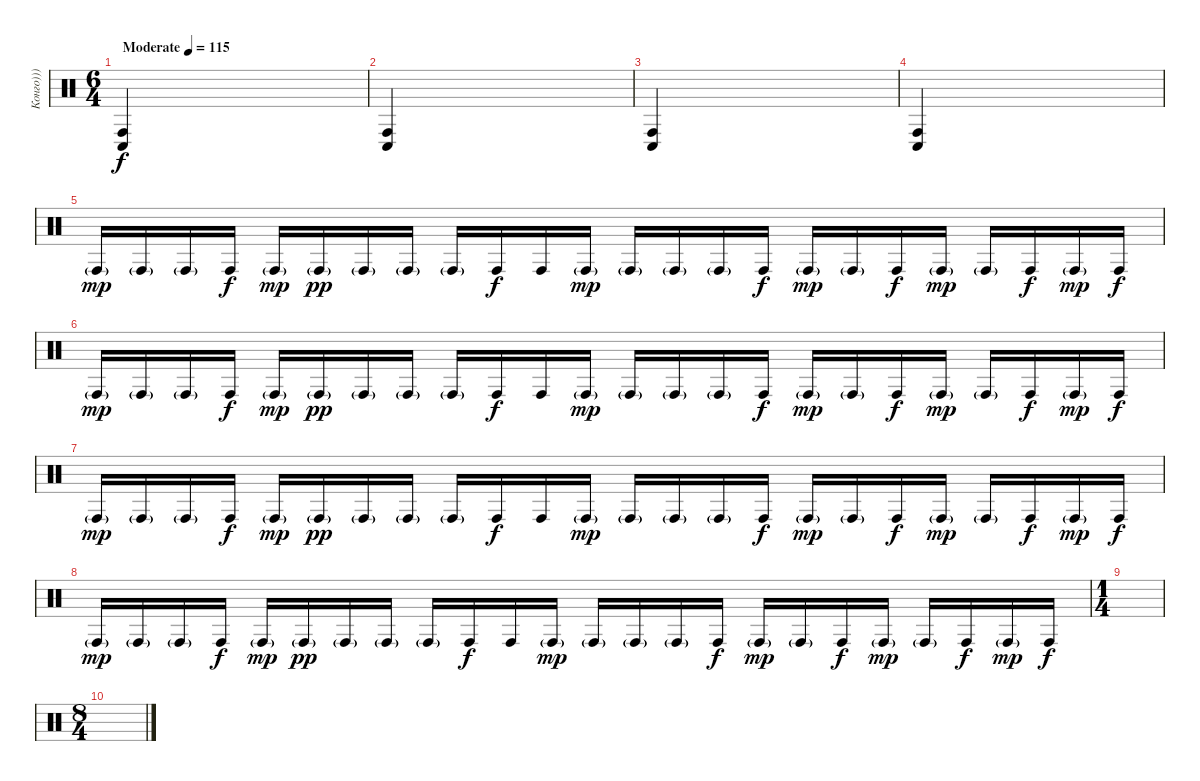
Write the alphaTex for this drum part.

\track ("Конго)))" "Конго)))") {instrument percussion}
\staff {score}
\articulation defaults
\ts (6 4)
\tempo (115 "Moderate")
\clef neutral
\ks c
("Conga high (hit)" "Conga low (hit)").4{dy f} |
("Conga high (hit)" "Conga low (hit)").4 |
("Conga low (hit)" "Conga high (hit)").4 |
("Conga low (hit)" "Conga high (hit)").4 |
"Conga high (hit)"{g}.16{dy mp} "Conga high (hit)"{g}.16 "Conga high (hit)"{g}.16 "Conga high (hit)".16{dy f} "Conga high (hit)"{g}.16{dy mp} "Conga high (hit)"{g}.16{dy pp} "Conga high (hit)"{g}.16 "Conga high (hit)"{g}.16 "Conga high (hit)"{g}.16 "Conga high (hit)".16{dy f} "Conga high (hit)".16 "Conga high (hit)"{g}.16{dy mp} "Conga high (hit)"{g}.16 "Conga high (hit)"{g}.16 "Conga high (hit)"{g}.16 "Conga high (hit)".16{dy f} "Conga high (hit)"{g}.16{dy mp} "Conga high (hit)"{g}.16 "Conga high (hit)".16{dy f} "Conga high (hit)"{g}.16{dy mp} "Conga high (hit)"{g}.16 "Conga high (hit)".16{dy f} "Conga high (hit)"{g}.16{dy mp} "Conga high (hit)".16{dy f} |
"Conga high (hit)"{g}.16{dy mp} "Conga high (hit)"{g}.16 "Conga high (hit)"{g}.16 "Conga high (hit)".16{dy f} "Conga high (hit)"{g}.16{dy mp} "Conga high (hit)"{g}.16{dy pp} "Conga high (hit)"{g}.16 "Conga high (hit)"{g}.16 "Conga high (hit)"{g}.16 "Conga high (hit)".16{dy f} "Conga high (hit)".16 "Conga high (hit)"{g}.16{dy mp} "Conga high (hit)"{g}.16 "Conga high (hit)"{g}.16 "Conga high (hit)"{g}.16 "Conga high (hit)".16{dy f} "Conga high (hit)"{g}.16{dy mp} "Conga high (hit)"{g}.16 "Conga high (hit)".16{dy f} "Conga high (hit)"{g}.16{dy mp} "Conga high (hit)"{g}.16 "Conga high (hit)".16{dy f} "Conga high (hit)"{g}.16{dy mp} "Conga high (hit)".16{dy f} |
"Conga high (hit)"{g}.16{dy mp} "Conga high (hit)"{g}.16 "Conga high (hit)"{g}.16 "Conga high (hit)".16{dy f} "Conga high (hit)"{g}.16{dy mp} "Conga high (hit)"{g}.16{dy pp} "Conga high (hit)"{g}.16 "Conga high (hit)"{g}.16 "Conga high (hit)"{g}.16 "Conga high (hit)".16{dy f} "Conga high (hit)".16 "Conga high (hit)"{g}.16{dy mp} "Conga high (hit)"{g}.16 "Conga high (hit)"{g}.16 "Conga high (hit)"{g}.16 "Conga high (hit)".16{dy f} "Conga high (hit)"{g}.16{dy mp} "Conga high (hit)"{g}.16 "Conga high (hit)".16{dy f} "Conga high (hit)"{g}.16{dy mp} "Conga high (hit)"{g}.16 "Conga high (hit)".16{dy f} "Conga high (hit)"{g}.16{dy mp} "Conga high (hit)".16{dy f} |
"Conga high (hit)"{g}.16{dy mp} "Conga high (hit)"{g}.16 "Conga high (hit)"{g}.16 "Conga high (hit)".16{dy f} "Conga high (hit)"{g}.16{dy mp} "Conga high (hit)"{g}.16{dy pp} "Conga high (hit)"{g}.16 "Conga high (hit)"{g}.16 "Conga high (hit)"{g}.16 "Conga high (hit)".16{dy f} "Conga high (hit)".16 "Conga high (hit)"{g}.16{dy mp} "Conga high (hit)"{g}.16 "Conga high (hit)"{g}.16 "Conga high (hit)"{g}.16 "Conga high (hit)".16{dy f} "Conga high (hit)"{g}.16{dy mp} "Conga high (hit)"{g}.16 "Conga high (hit)".16{dy f} "Conga high (hit)"{g}.16{dy mp} "Conga high (hit)"{g}.16 "Conga high (hit)".16{dy f} "Conga high (hit)"{g}.16{dy mp} "Conga high (hit)".16{dy f} |
\ts (1 4)
|
\ts (8 4)
